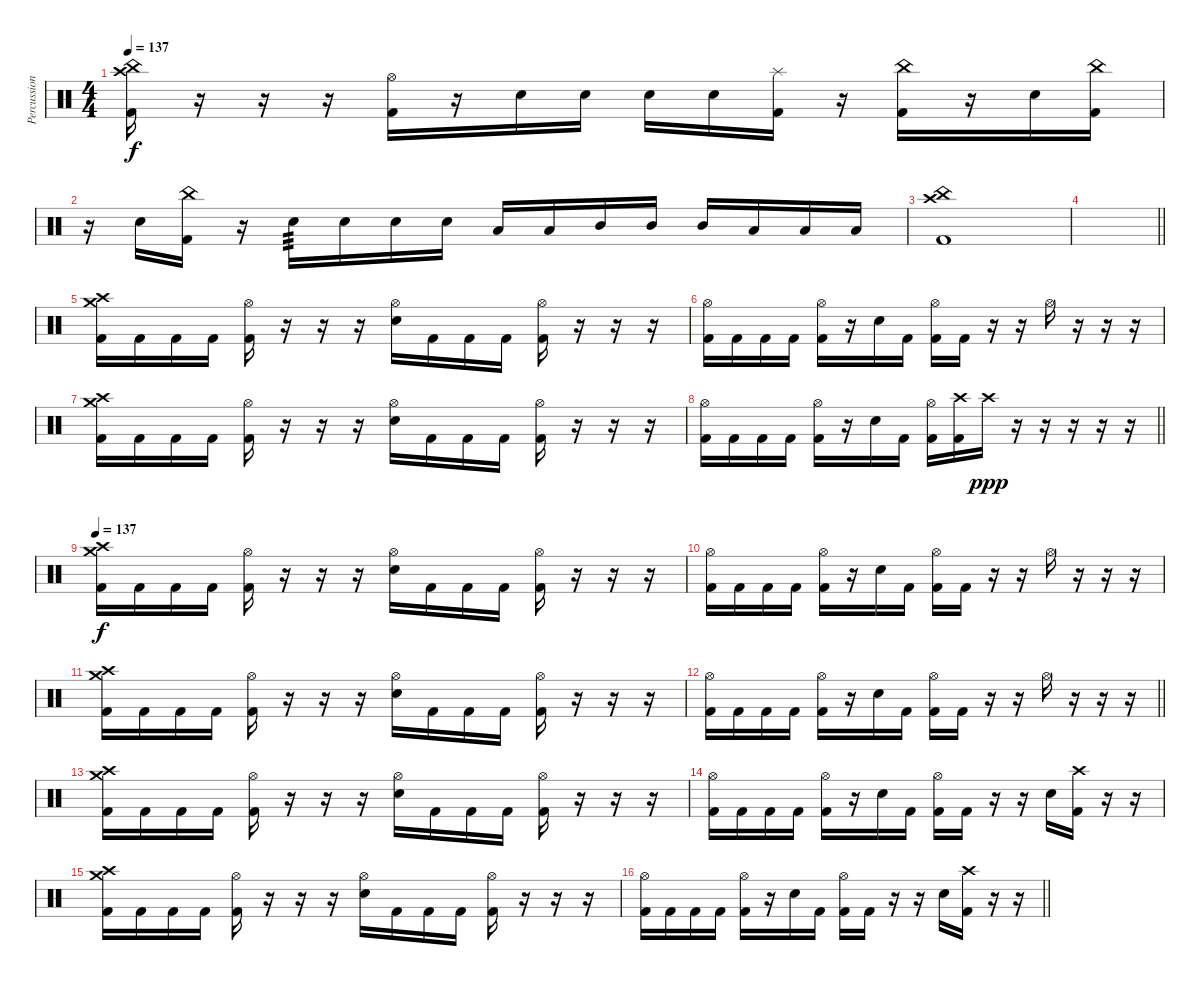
\track ("Percussion" "Percussion") {instrument percussion}
\staff {score}
\articulation defaults
\ts (4 4)
\tempo 137
\clef neutral
\ks c
("Crash high (hit)" "China (hit)" "Kick (hit) 2").16{dy f} r.16 r.16 r.16 ("Hi-Hat (open)" "Kick (hit) 2").16 r.16 "Electric Snare (hit)".16 "Electric Snare (hit)".16 "Electric Snare (hit)".16 "Electric Snare (hit)".16 ("Splash (hit)" "Kick (hit) 2").16 r.16 ("China (hit)" "Kick (hit) 2").16 r.16 "Electric Snare (hit)".16 ("China (hit)" "Kick (hit) 2").16 |
r.16 "Electric Snare (hit)".16 ("China (hit)" "Kick (hit) 2").16 r.16 "Electric Snare (hit)".16{tp 3} "Electric Snare (hit)".16 "Electric Snare (hit)".16 "Electric Snare (hit)".16 "Low Tom (hit)".16 "Low Tom (hit)".16 "Mid Tom (hit)".16 "Mid Tom (hit)".16 "Mid Tom (hit)".16 "Low Tom (hit)".16 "Low Tom (hit)".16 "Low Tom (hit)".16 |
("Crash high (hit)" "China (hit)" "Kick (hit) 2").1 |
\barLineRight lightlight
|
\section ("" "")
("Crash high (hit)" "Crash medium (hit)" "Kick (hit) 2").16 "Kick (hit) 2".16 "Kick (hit) 2".16 "Kick (hit) 2".16 ("Hi-Hat (open)" "Kick (hit) 2").16 r.16 r.16 r.16 ("Hi-Hat (open)" "Electric Snare (hit)").16 "Kick (hit) 2".16 "Kick (hit) 2".16 "Kick (hit) 2".16 ("Hi-Hat (open)" "Kick (hit) 2").16 r.16 r.16 r.16 |
("Hi-Hat (open)" "Kick (hit) 2").16 "Kick (hit) 2".16 "Kick (hit) 2".16 "Kick (hit) 2".16 ("Hi-Hat (open)" "Kick (hit) 2").16 r.16 "Electric Snare (hit)".16 "Kick (hit) 2".16 ("Hi-Hat (open)" "Kick (hit) 2").16 "Kick (hit) 2".16 r.16 r.16 "Hi-Hat (open)".16 r.16 r.16 r.16 |
("Crash high (hit)" "Crash medium (hit)" "Kick (hit) 2").16 "Kick (hit) 2".16 "Kick (hit) 2".16 "Kick (hit) 2".16 ("Hi-Hat (open)" "Kick (hit) 2").16 r.16 r.16 r.16 ("Hi-Hat (open)" "Electric Snare (hit)").16 "Kick (hit) 2".16 "Kick (hit) 2".16 "Kick (hit) 2".16 ("Hi-Hat (open)" "Kick (hit) 2").16 r.16 r.16 r.16 |
\barLineRight lightlight
("Hi-Hat (open)" "Kick (hit) 2").16 "Kick (hit) 2".16 "Kick (hit) 2".16 "Kick (hit) 2".16 ("Hi-Hat (open)" "Kick (hit) 2").16 r.16 "Electric Snare (hit)".16 "Kick (hit) 2".16 ("Hi-Hat (open)" "Kick (hit) 2").16 ("Crash high (hit)" "Kick (hit) 2").16 "Crash high (hit)".16{dy ppp} r.16 r.16 r.16 r.16 r.16 |
\section ("" "")
\tempo 137
("Crash high (hit)" "Crash medium (hit)" "Kick (hit) 2").16{dy f} "Kick (hit) 2".16 "Kick (hit) 2".16 "Kick (hit) 2".16 ("Hi-Hat (open)" "Kick (hit) 2").16 r.16 r.16 r.16 ("Hi-Hat (open)" "Electric Snare (hit)").16 "Kick (hit) 2".16 "Kick (hit) 2".16 "Kick (hit) 2".16 ("Hi-Hat (open)" "Kick (hit) 2").16 r.16 r.16 r.16 |
("Hi-Hat (open)" "Kick (hit) 2").16 "Kick (hit) 2".16 "Kick (hit) 2".16 "Kick (hit) 2".16 ("Hi-Hat (open)" "Kick (hit) 2").16 r.16 "Electric Snare (hit)".16 "Kick (hit) 2".16 ("Hi-Hat (open)" "Kick (hit) 2").16 "Kick (hit) 2".16 r.16 r.16 "Hi-Hat (open)".16 r.16 r.16 r.16 |
("Crash high (hit)" "Crash medium (hit)" "Kick (hit) 2").16 "Kick (hit) 2".16 "Kick (hit) 2".16 "Kick (hit) 2".16 ("Hi-Hat (open)" "Kick (hit) 2").16 r.16 r.16 r.16 ("Hi-Hat (open)" "Electric Snare (hit)").16 "Kick (hit) 2".16 "Kick (hit) 2".16 "Kick (hit) 2".16 ("Hi-Hat (open)" "Kick (hit) 2").16 r.16 r.16 r.16 |
\barLineRight lightlight
("Hi-Hat (open)" "Kick (hit) 2").16 "Kick (hit) 2".16 "Kick (hit) 2".16 "Kick (hit) 2".16 ("Hi-Hat (open)" "Kick (hit) 2").16 r.16 "Electric Snare (hit)".16 "Kick (hit) 2".16 ("Hi-Hat (open)" "Kick (hit) 2").16 "Kick (hit) 2".16 r.16 r.16 "Hi-Hat (open)".16 r.16 r.16 r.16 |
("Crash high (hit)" "Crash medium (hit)" "Kick (hit) 2").16 "Kick (hit) 2".16 "Kick (hit) 2".16 "Kick (hit) 2".16 ("Hi-Hat (open)" "Kick (hit) 2").16 r.16 r.16 r.16 ("Hi-Hat (open)" "Electric Snare (hit)").16 "Kick (hit) 2".16 "Kick (hit) 2".16 "Kick (hit) 2".16 ("Hi-Hat (open)" "Kick (hit) 2").16 r.16 r.16 r.16 |
("Hi-Hat (open)" "Kick (hit) 2").16 "Kick (hit) 2".16 "Kick (hit) 2".16 "Kick (hit) 2".16 ("Hi-Hat (open)" "Kick (hit) 2").16 r.16 "Electric Snare (hit)".16 "Kick (hit) 2".16 ("Hi-Hat (open)" "Kick (hit) 2").16 "Kick (hit) 2".16 r.16 r.16 "Electric Snare (hit)".16 ("Crash high (hit)" "Kick (hit) 2").16 r.16 r.16 |
("Crash high (hit)" "Crash medium (hit)" "Kick (hit) 2").16 "Kick (hit) 2".16 "Kick (hit) 2".16 "Kick (hit) 2".16 ("Hi-Hat (open)" "Kick (hit) 2").16 r.16 r.16 r.16 ("Hi-Hat (open)" "Electric Snare (hit)").16 "Kick (hit) 2".16 "Kick (hit) 2".16 "Kick (hit) 2".16 ("Hi-Hat (open)" "Kick (hit) 2").16 r.16 r.16 r.16 |
\barLineRight lightlight
("Hi-Hat (open)" "Kick (hit) 2").16 "Kick (hit) 2".16 "Kick (hit) 2".16 "Kick (hit) 2".16 ("Hi-Hat (open)" "Kick (hit) 2").16 r.16 "Electric Snare (hit)".16 "Kick (hit) 2".16 ("Hi-Hat (open)" "Kick (hit) 2").16 "Kick (hit) 2".16 r.16 r.16 "Electric Snare (hit)".16 ("Crash high (hit)" "Kick (hit) 2").16 r.16 r.16
